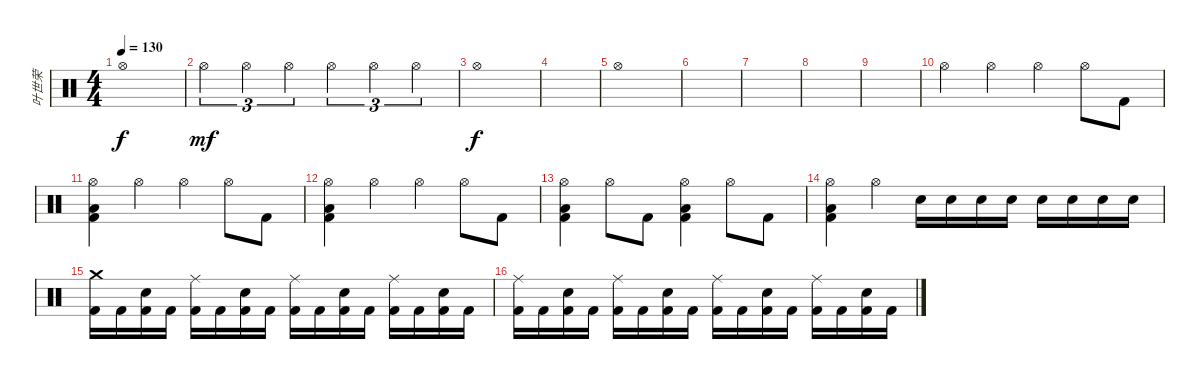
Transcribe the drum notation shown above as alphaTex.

\track ("叶世荣" "叶世荣") {instrument percussion}
\staff {score}
\articulation defaults
\ts (4 4)
\tempo 130
\clef neutral
\ks c "Hi-Hat (open)".1{dy f}
|
"Hi-Hat (open)".4{tu (3 2) dy mf} "Hi-Hat (open)".4{tu (3 2)} "Hi-Hat (open)".4{tu (3 2)} "Hi-Hat (open)".4{tu (3 2)} "Hi-Hat (open)".4{tu (3 2)} "Hi-Hat (open)".4{tu (3 2)} |
"Hi-Hat (open)".1{dy f} |
|
"Hi-Hat (open)".1 |
|
|
|
|
"Hi-Hat (open)".4 "Hi-Hat (open)".4 "Hi-Hat (open)".4 "Hi-Hat (open)".8 "Kick (hit) 2".8 |
("Hi-Hat (open)" "Low Floor Tom (hit)" "Kick (hit) 2").4 "Hi-Hat (open)".4 "Hi-Hat (open)".4 "Hi-Hat (open)".8 "Kick (hit) 2".8 |
("Hi-Hat (open)" "Low Floor Tom (hit)" "Kick (hit) 2").4 "Hi-Hat (open)".4 "Hi-Hat (open)".4 "Hi-Hat (open)".8 "Kick (hit) 2".8 |
("Hi-Hat (open)" "Low Floor Tom (hit)" "Kick (hit) 2").4 "Hi-Hat (open)".8 "Kick (hit) 2".8 ("Hi-Hat (open)" "Low Floor Tom (hit)" "Kick (hit) 2").4 "Hi-Hat (open)".8 "Kick (hit) 2".8 |
("Hi-Hat (open)" "Low Floor Tom (hit)" "Kick (hit) 2").4 "Hi-Hat (open)".4 "Snare (hit) 2".16 "Snare (hit) 2".16 "Snare (hit) 2".16 "Snare (hit) 2".16 "Snare (hit) 2".16 "Snare (hit) 2".16 "Snare (hit) 2".16 "Snare (hit) 2".16 |
("Crash medium (hit)" "Kick (hit) 2").16 "Kick (hit) 2".16 ("Snare (hit) 2" "Kick (hit) 2").16 "Kick (hit) 2".16 ("Ride (middle)" "Kick (hit) 2").16 "Kick (hit) 2".16 ("Snare (hit) 2" "Kick (hit) 2").16 "Kick (hit) 2".16 ("Ride (middle)" "Kick (hit) 2").16 "Kick (hit) 2".16 ("Snare (hit) 2" "Kick (hit) 2").16 "Kick (hit) 2".16 ("Ride (middle)" "Kick (hit) 2").16 "Kick (hit) 2".16 ("Snare (hit) 2" "Kick (hit) 2").16 "Kick (hit) 2".16 |
("Ride (middle)" "Kick (hit) 2").16 "Kick (hit) 2".16 ("Snare (hit) 2" "Kick (hit) 2").16 "Kick (hit) 2".16 ("Ride (middle)" "Kick (hit) 2").16 "Kick (hit) 2".16 ("Snare (hit) 2" "Kick (hit) 2").16 "Kick (hit) 2".16 ("Ride (middle)" "Kick (hit) 2").16 "Kick (hit) 2".16 ("Snare (hit) 2" "Kick (hit) 2").16 "Kick (hit) 2".16 ("Ride (middle)" "Kick (hit) 2").16 "Kick (hit) 2".16 ("Snare (hit) 2" "Kick (hit) 2").16 "Kick (hit) 2".16
